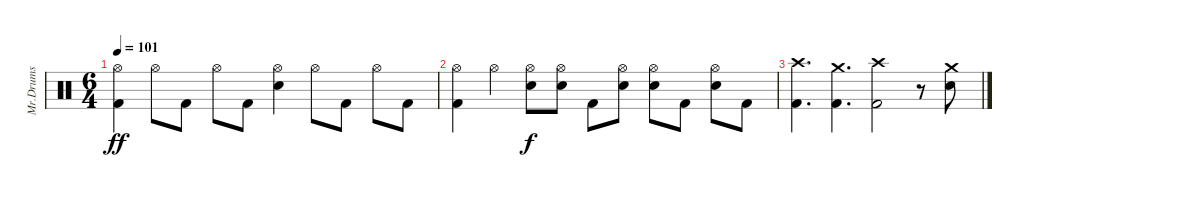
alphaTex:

\track ("Mr.Drums" "Mr.Drums") {instrument percussion}
\staff {score}
\articulation defaults
\ts (6 4)
\tempo 101
\clef neutral
\ks c
("Hi-Hat (open)" "Kick (hit) 2").4{dy ff} "Hi-Hat (open)".8 "Kick (hit) 2".8 "Hi-Hat (open)".8 "Kick (hit) 2".8 ("Hi-Hat (open)" "Electric Snare (hit)").4 "Hi-Hat (open)".8 "Kick (hit) 2".8 "Hi-Hat (open)".8 "Kick (hit) 2".8 |
("Hi-Hat (open)" "Kick (hit) 2").4 "Hi-Hat (open)".4 ("Hi-Hat (open)" "Electric Snare (hit)").8{dy f} ("Hi-Hat (open)" "Electric Snare (hit)").8 "Kick (hit) 2".8 ("Hi-Hat (open)" "Electric Snare (hit)").8 ("Hi-Hat (open)" "Electric Snare (hit)").8 "Kick (hit) 2".8 ("Hi-Hat (open)" "Electric Snare (hit)").8 "Kick (hit) 2".8 |
("Crash high (hit)" "Kick (hit) 2").4{d} ("Crash medium (hit)" "Kick (hit) 2").4{d} ("Crash high (hit)" "Kick (hit) 2").2 r.8 ("Crash medium (hit)" "Electric Snare (hit)").8
